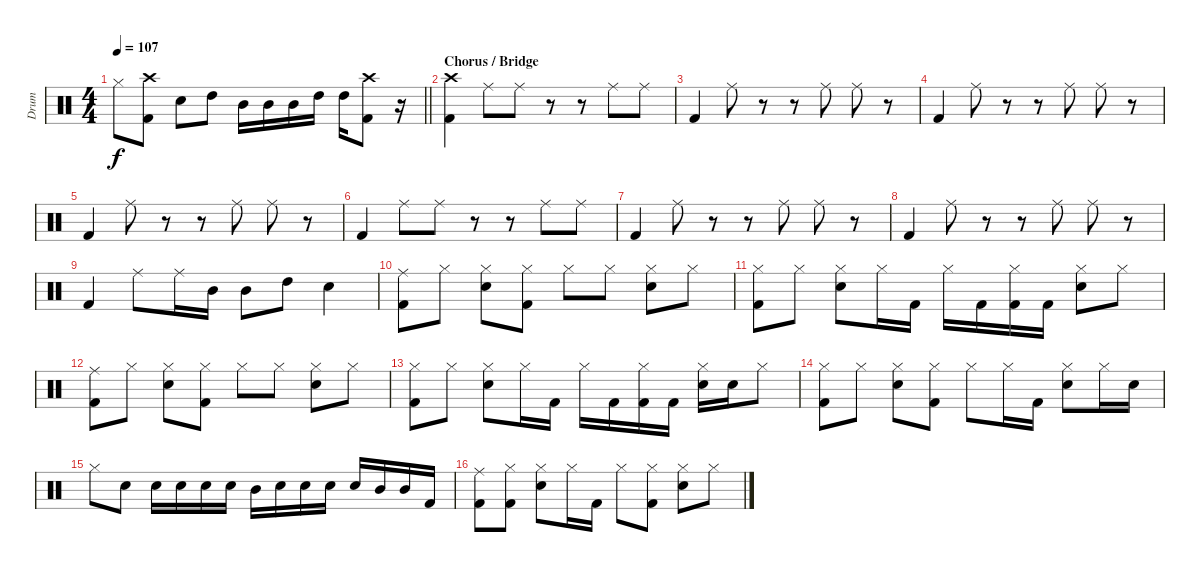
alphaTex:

\track ("Drum" "Drum") {instrument percussion}
\staff {score}
\articulation defaults
\ts (4 4)
\tempo 107
\clef neutral
\barLineRight lightlight
\ks c "Hi-Hat (closed)".8{dy f}
("Crash high (hit)" "Kick (hit) 2").8 "Snare (hit) 2".8 "High Tom (hit)".8 "Mid Tom (hit)".16 "Mid Tom (hit)".16 "Mid Tom (hit)".16 "High Tom (hit)".16 "High Tom (hit)".16 ("Crash high (hit)" "Kick (hit) 2").8 r.16 |
\section ("" "Chorus / Bridge")
("Crash high (hit)" "Kick (hit) 2").4 "Ride (middle)".8 "Ride (middle)".8 r.8 r.8 "Ride (middle)".8 "Ride (middle)".8 |
"Kick (hit) 2".4 "Ride (middle)".8 r.8 r.8 "Ride (middle)".8 "Ride (middle)".8 r.8 |
"Kick (hit) 2".4 "Ride (middle)".8 r.8 r.8 "Ride (middle)".8 "Ride (middle)".8 r.8 |
"Kick (hit) 2".4 "Ride (middle)".8 r.8 r.8 "Ride (middle)".8 "Ride (middle)".8 r.8 |
"Kick (hit) 2".4 "Ride (middle)".8 "Ride (middle)".8 r.8 r.8 "Ride (middle)".8 "Ride (middle)".8 |
"Kick (hit) 2".4 "Ride (middle)".8 r.8 r.8 "Ride (middle)".8 "Ride (middle)".8 r.8 |
"Kick (hit) 2".4 "Ride (middle)".8 r.8 r.8 "Ride (middle)".8 "Ride (middle)".8 r.8 |
"Kick (hit) 2".4 "Ride (middle)".8 "Ride (middle)".16 "Mid Tom (hit)".16 "Mid Tom (hit)".8 "High Tom (hit)".8 "Snare (hit) 2".4 |
("Ride (middle)" "Kick (hit) 2").8 "Hi-Hat (closed)".8 ("Hi-Hat (closed)" "Snare (hit) 2").8 ("Hi-Hat (closed)" "Kick (hit) 2").8 "Hi-Hat (closed)".8 "Hi-Hat (closed)".8 ("Hi-Hat (closed)" "Snare (hit) 2").8 "Hi-Hat (closed)".8 |
("Hi-Hat (closed)" "Kick (hit) 2").8 "Hi-Hat (closed)".8 ("Hi-Hat (closed)" "Snare (hit) 2").8 "Hi-Hat (closed)".16 "Kick (hit) 2".16 "Hi-Hat (closed)".16 "Kick (hit) 2".16 ("Hi-Hat (closed)" "Kick (hit) 2").16 "Kick (hit) 2".16 ("Hi-Hat (closed)" "Snare (hit) 2").8 "Hi-Hat (closed)".8 |
("Ride (middle)" "Kick (hit) 2").8 "Hi-Hat (closed)".8 ("Hi-Hat (closed)" "Snare (hit) 2").8 ("Hi-Hat (closed)" "Kick (hit) 2").8 "Hi-Hat (closed)".8 "Hi-Hat (closed)".8 ("Hi-Hat (closed)" "Snare (hit) 2").8 "Hi-Hat (closed)".8 |
("Hi-Hat (closed)" "Kick (hit) 2").8 "Hi-Hat (closed)".8 ("Hi-Hat (closed)" "Snare (hit) 2").8 "Hi-Hat (closed)".16 "Kick (hit) 2".16 "Hi-Hat (closed)".16 "Kick (hit) 2".16 ("Hi-Hat (closed)" "Kick (hit) 2").16 "Kick (hit) 2".16 ("Hi-Hat (closed)" "Snare (hit) 2").16 "Snare (hit) 2".16 "Hi-Hat (closed)".8 |
("Hi-Hat (closed)" "Kick (hit) 2").8 "Hi-Hat (closed)".8 ("Hi-Hat (closed)" "Snare (hit) 2").8 ("Hi-Hat (closed)" "Kick (hit) 2").8 "Hi-Hat (closed)".8 "Hi-Hat (closed)".16 "Kick (hit) 2".16 ("Hi-Hat (closed)" "Snare (hit) 2").8 "Hi-Hat (closed)".16 "Snare (hit) 2".16 |
"Hi-Hat (closed)".8 "Snare (hit) 2".8 "Snare (hit) 2".16 "Snare (hit) 2".16 "Snare (hit) 2".16 "Snare (hit) 2".16 "Mid Tom (hit)".16 "Snare (hit) 2".16 "Snare (hit) 2".16 "Snare (hit) 2".16 "Snare (hit) 2".16 "Mid Tom (hit)".16 "Mid Tom (hit)".16 "Kick (hit) 2".16 |
("Ride (middle)" "Kick (hit) 2").8 ("Hi-Hat (closed)" "Kick (hit) 2").8 ("Hi-Hat (closed)" "Snare (hit) 2").8 "Hi-Hat (closed)".16 "Kick (hit) 2".16 "Hi-Hat (closed)".8 ("Hi-Hat (closed)" "Kick (hit) 2").8 ("Hi-Hat (closed)" "Snare (hit) 2").8 "Hi-Hat (closed)".8
